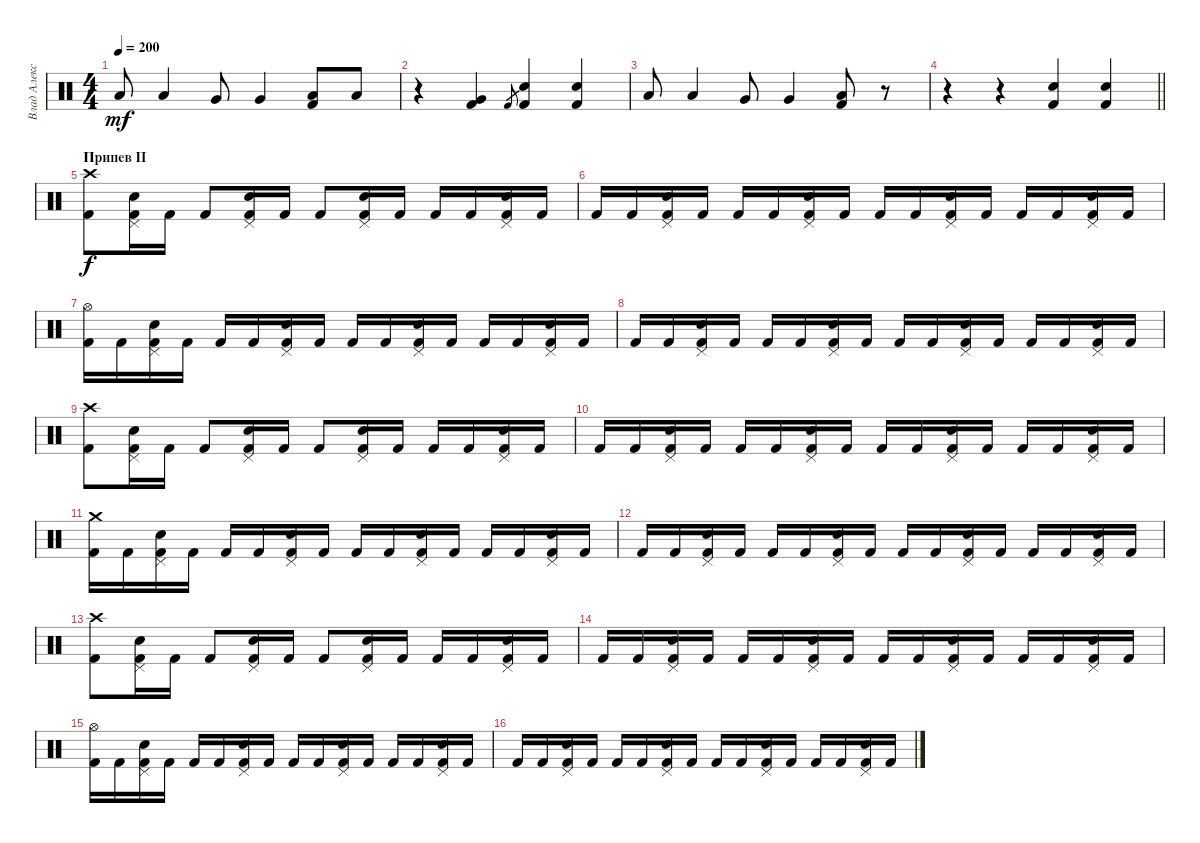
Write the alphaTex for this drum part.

\track ("Влад Алексеенко" "Влад Алекс") {instrument percussion}
\staff {score}
\articulation defaults
\ts (4 4)
\tempo 200
\clef neutral
\ks c "Low Tom (hit)".8{dy mf} "Low Tom (hit)".4 "Very Low Tom (hit)".8 "Very Low Tom (hit)".4
("Low Tom (hit)" "Kick (hit) 2").8 "Low Tom (hit)".8 |
r.4 ("Very Low Tom (hit)" "Kick (hit) 2").4 "Kick (hit) 2".8{gr} ("Electric Snare (hit)" "Kick (hit) 2").4 ("Electric Snare (hit)" "Kick (hit) 2").4 |
"Low Tom (hit)".8 "Low Tom (hit)".4 "Very Low Tom (hit)".8 "Very Low Tom (hit)".4 ("Low Tom (hit)" "Kick (hit) 2").8 r.8 |
\barLineRight lightlight
r.4 r.4 ("Electric Snare (hit)" "Kick (hit) 2").4 ("Electric Snare (hit)" "Kick (hit) 2").4 |
\section ("" "Припев II")
("Kick (hit) 2" "Crash high (hit)").8{dy f} ("Kick (hit) 2" "Electric Snare (hit)" "Pedal Hi-Hat (hit)").16 "Kick (hit) 2".16 "Kick (hit) 2".8 ("Kick (hit) 2" "Electric Snare (hit)" "Pedal Hi-Hat (hit)").16 "Kick (hit) 2".16 "Kick (hit) 2".8 ("Kick (hit) 2" "Electric Snare (hit)" "Pedal Hi-Hat (hit)").16 "Kick (hit) 2".16 "Kick (hit) 2".16 "Kick (hit) 2".16 ("Kick (hit) 2" "Electric Snare (hit)" "Pedal Hi-Hat (hit)").16 "Kick (hit) 2".16 |
"Kick (hit) 2".16 "Kick (hit) 2".16 ("Kick (hit) 2" "Electric Snare (hit)" "Pedal Hi-Hat (hit)").16 "Kick (hit) 2".16 "Kick (hit) 2".16 "Kick (hit) 2".16 ("Kick (hit) 2" "Electric Snare (hit)" "Pedal Hi-Hat (hit)").16 "Kick (hit) 2".16 "Kick (hit) 2".16 "Kick (hit) 2".16 ("Kick (hit) 2" "Electric Snare (hit)" "Pedal Hi-Hat (hit)").16 "Kick (hit) 2".16 "Kick (hit) 2".16 "Kick (hit) 2".16 ("Kick (hit) 2" "Electric Snare (hit)" "Pedal Hi-Hat (hit)").16 "Kick (hit) 2".16 |
("Kick (hit) 2" "Hi-Hat (open)").16 "Kick (hit) 2".16 ("Kick (hit) 2" "Electric Snare (hit)" "Pedal Hi-Hat (hit)").16 "Kick (hit) 2".16 "Kick (hit) 2".16 "Kick (hit) 2".16 ("Kick (hit) 2" "Electric Snare (hit)" "Pedal Hi-Hat (hit)").16 "Kick (hit) 2".16 "Kick (hit) 2".16 "Kick (hit) 2".16 ("Kick (hit) 2" "Electric Snare (hit)" "Pedal Hi-Hat (hit)").16 "Kick (hit) 2".16 "Kick (hit) 2".16 "Kick (hit) 2".16 ("Kick (hit) 2" "Electric Snare (hit)" "Pedal Hi-Hat (hit)").16 "Kick (hit) 2".16 |
"Kick (hit) 2".16 "Kick (hit) 2".16 ("Kick (hit) 2" "Electric Snare (hit)" "Pedal Hi-Hat (hit)").16 "Kick (hit) 2".16 "Kick (hit) 2".16 "Kick (hit) 2".16 ("Kick (hit) 2" "Electric Snare (hit)" "Pedal Hi-Hat (hit)").16 "Kick (hit) 2".16 "Kick (hit) 2".16 "Kick (hit) 2".16 ("Kick (hit) 2" "Electric Snare (hit)" "Pedal Hi-Hat (hit)").16 "Kick (hit) 2".16 "Kick (hit) 2".16 "Kick (hit) 2".16 ("Kick (hit) 2" "Electric Snare (hit)" "Pedal Hi-Hat (hit)").16 "Kick (hit) 2".16 |
("Kick (hit) 2" "Crash high (hit)").8 ("Kick (hit) 2" "Electric Snare (hit)" "Pedal Hi-Hat (hit)").16 "Kick (hit) 2".16 "Kick (hit) 2".8 ("Kick (hit) 2" "Electric Snare (hit)" "Pedal Hi-Hat (hit)").16 "Kick (hit) 2".16 "Kick (hit) 2".8 ("Kick (hit) 2" "Electric Snare (hit)" "Pedal Hi-Hat (hit)").16 "Kick (hit) 2".16 "Kick (hit) 2".16 "Kick (hit) 2".16 ("Kick (hit) 2" "Electric Snare (hit)" "Pedal Hi-Hat (hit)").16 "Kick (hit) 2".16 |
"Kick (hit) 2".16 "Kick (hit) 2".16 ("Kick (hit) 2" "Electric Snare (hit)" "Pedal Hi-Hat (hit)").16 "Kick (hit) 2".16 "Kick (hit) 2".16 "Kick (hit) 2".16 ("Kick (hit) 2" "Electric Snare (hit)" "Pedal Hi-Hat (hit)").16 "Kick (hit) 2".16 "Kick (hit) 2".16 "Kick (hit) 2".16 ("Kick (hit) 2" "Electric Snare (hit)" "Pedal Hi-Hat (hit)").16 "Kick (hit) 2".16 "Kick (hit) 2".16 "Kick (hit) 2".16 ("Kick (hit) 2" "Electric Snare (hit)" "Pedal Hi-Hat (hit)").16 "Kick (hit) 2".16 |
("Kick (hit) 2" "Crash medium (hit)").16 "Kick (hit) 2".16 ("Kick (hit) 2" "Electric Snare (hit)" "Pedal Hi-Hat (hit)").16 "Kick (hit) 2".16 "Kick (hit) 2".16 "Kick (hit) 2".16 ("Kick (hit) 2" "Electric Snare (hit)" "Pedal Hi-Hat (hit)").16 "Kick (hit) 2".16 "Kick (hit) 2".16 "Kick (hit) 2".16 ("Kick (hit) 2" "Electric Snare (hit)" "Pedal Hi-Hat (hit)").16 "Kick (hit) 2".16 "Kick (hit) 2".16 "Kick (hit) 2".16 ("Kick (hit) 2" "Electric Snare (hit)" "Pedal Hi-Hat (hit)").16 "Kick (hit) 2".16 |
"Kick (hit) 2".16 "Kick (hit) 2".16 ("Kick (hit) 2" "Electric Snare (hit)" "Pedal Hi-Hat (hit)").16 "Kick (hit) 2".16 "Kick (hit) 2".16 "Kick (hit) 2".16 ("Kick (hit) 2" "Electric Snare (hit)" "Pedal Hi-Hat (hit)").16 "Kick (hit) 2".16 "Kick (hit) 2".16 "Kick (hit) 2".16 ("Kick (hit) 2" "Electric Snare (hit)" "Pedal Hi-Hat (hit)").16 "Kick (hit) 2".16 "Kick (hit) 2".16 "Kick (hit) 2".16 ("Kick (hit) 2" "Electric Snare (hit)" "Pedal Hi-Hat (hit)").16 "Kick (hit) 2".16 |
("Kick (hit) 2" "Crash high (hit)").8 ("Kick (hit) 2" "Electric Snare (hit)" "Pedal Hi-Hat (hit)").16 "Kick (hit) 2".16 "Kick (hit) 2".8 ("Kick (hit) 2" "Electric Snare (hit)" "Pedal Hi-Hat (hit)").16 "Kick (hit) 2".16 "Kick (hit) 2".8 ("Kick (hit) 2" "Electric Snare (hit)" "Pedal Hi-Hat (hit)").16 "Kick (hit) 2".16 "Kick (hit) 2".16 "Kick (hit) 2".16 ("Kick (hit) 2" "Electric Snare (hit)" "Pedal Hi-Hat (hit)").16 "Kick (hit) 2".16 |
"Kick (hit) 2".16 "Kick (hit) 2".16 ("Kick (hit) 2" "Electric Snare (hit)" "Pedal Hi-Hat (hit)").16 "Kick (hit) 2".16 "Kick (hit) 2".16 "Kick (hit) 2".16 ("Kick (hit) 2" "Electric Snare (hit)" "Pedal Hi-Hat (hit)").16 "Kick (hit) 2".16 "Kick (hit) 2".16 "Kick (hit) 2".16 ("Kick (hit) 2" "Electric Snare (hit)" "Pedal Hi-Hat (hit)").16 "Kick (hit) 2".16 "Kick (hit) 2".16 "Kick (hit) 2".16 ("Kick (hit) 2" "Electric Snare (hit)" "Pedal Hi-Hat (hit)").16 "Kick (hit) 2".16 |
("Kick (hit) 2" "Hi-Hat (open)").16 "Kick (hit) 2".16 ("Kick (hit) 2" "Electric Snare (hit)" "Pedal Hi-Hat (hit)").16 "Kick (hit) 2".16 "Kick (hit) 2".16 "Kick (hit) 2".16 ("Kick (hit) 2" "Electric Snare (hit)" "Pedal Hi-Hat (hit)").16 "Kick (hit) 2".16 "Kick (hit) 2".16 "Kick (hit) 2".16 ("Kick (hit) 2" "Electric Snare (hit)" "Pedal Hi-Hat (hit)").16 "Kick (hit) 2".16 "Kick (hit) 2".16 "Kick (hit) 2".16 ("Kick (hit) 2" "Electric Snare (hit)" "Pedal Hi-Hat (hit)").16 "Kick (hit) 2".16 |
"Kick (hit) 2".16 "Kick (hit) 2".16 ("Kick (hit) 2" "Electric Snare (hit)" "Pedal Hi-Hat (hit)").16 "Kick (hit) 2".16 "Kick (hit) 2".16 "Kick (hit) 2".16 ("Kick (hit) 2" "Electric Snare (hit)" "Pedal Hi-Hat (hit)").16 "Kick (hit) 2".16 "Kick (hit) 2".16 "Kick (hit) 2".16 ("Kick (hit) 2" "Electric Snare (hit)" "Pedal Hi-Hat (hit)").16 "Kick (hit) 2".16 "Kick (hit) 2".16 "Kick (hit) 2".16 ("Kick (hit) 2" "Electric Snare (hit)" "Pedal Hi-Hat (hit)").16 "Kick (hit) 2".16
